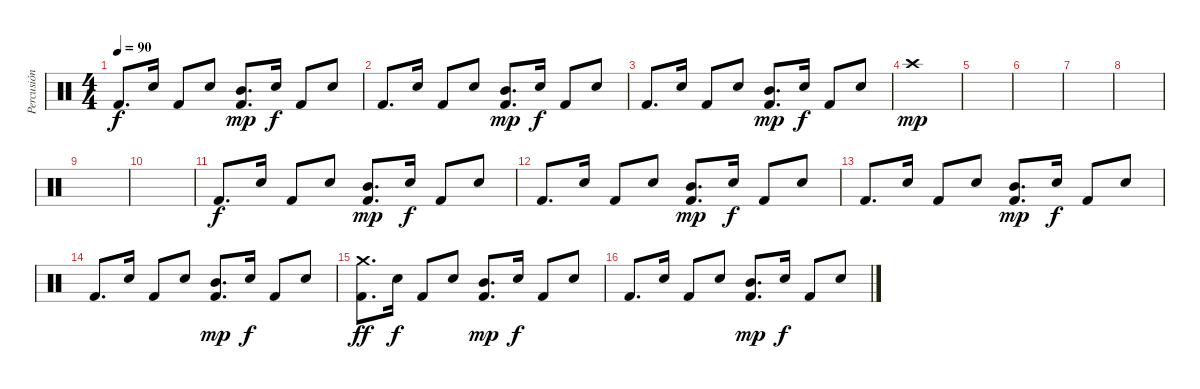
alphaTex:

\track ("Percusión" "Percusión") {instrument percussion}
\staff {score}
\articulation defaults
\ts (4 4)
\tempo 90
\clef neutral
\ks c "Kick (hit) 2".8{d dy f} "Electric Snare (hit)".16 "Kick (hit) 2".8 "Electric Snare (hit)".8
("Kick (hit) 2" "Mid Tom (hit)").8{d dy mp} "Electric Snare (hit)".16{dy f} "Kick (hit) 2".8 "Electric Snare (hit)".8 |
"Kick (hit) 2".8{d} "Electric Snare (hit)".16 "Kick (hit) 2".8 "Electric Snare (hit)".8 ("Kick (hit) 2" "Mid Tom (hit)").8{d dy mp} "Electric Snare (hit)".16{dy f} "Kick (hit) 2".8 "Electric Snare (hit)".8 |
"Kick (hit) 2".8{d} "Electric Snare (hit)".16 "Kick (hit) 2".8 "Electric Snare (hit)".8 ("Kick (hit) 2" "Mid Tom (hit)").8{d dy mp} "Electric Snare (hit)".16{dy f} "Kick (hit) 2".8 "Electric Snare (hit)".8 |
"Crash high (hit)".1{dy mp} |
|
|
|
|
|
|
"Kick (hit) 2".8{d dy f} "Electric Snare (hit)".16 "Kick (hit) 2".8 "Electric Snare (hit)".8 ("Kick (hit) 2" "Mid Tom (hit)").8{d dy mp} "Electric Snare (hit)".16{dy f} "Kick (hit) 2".8 "Electric Snare (hit)".8 |
"Kick (hit) 2".8{d} "Electric Snare (hit)".16 "Kick (hit) 2".8 "Electric Snare (hit)".8 ("Kick (hit) 2" "Mid Tom (hit)").8{d dy mp} "Electric Snare (hit)".16{dy f} "Kick (hit) 2".8 "Electric Snare (hit)".8 |
"Kick (hit) 2".8{d} "Electric Snare (hit)".16 "Kick (hit) 2".8 "Electric Snare (hit)".8 ("Kick (hit) 2" "Mid Tom (hit)").8{d dy mp} "Electric Snare (hit)".16{dy f} "Kick (hit) 2".8 "Electric Snare (hit)".8 |
"Kick (hit) 2".8{d} "Electric Snare (hit)".16 "Kick (hit) 2".8 "Electric Snare (hit)".8 ("Kick (hit) 2" "Mid Tom (hit)").8{d dy mp} "Electric Snare (hit)".16{dy f} "Kick (hit) 2".8 "Electric Snare (hit)".8 |
("Kick (hit) 2" "Crash medium (hit)").8{d dy ff} "Electric Snare (hit)".16{dy f} "Kick (hit) 2".8 "Electric Snare (hit)".8 ("Kick (hit) 2" "Mid Tom (hit)").8{d dy mp} "Electric Snare (hit)".16{dy f} "Kick (hit) 2".8 "Electric Snare (hit)".8 |
"Kick (hit) 2".8{d} "Electric Snare (hit)".16 "Kick (hit) 2".8 "Electric Snare (hit)".8 ("Kick (hit) 2" "Mid Tom (hit)").8{d dy mp} "Electric Snare (hit)".16{dy f} "Kick (hit) 2".8 "Electric Snare (hit)".8
